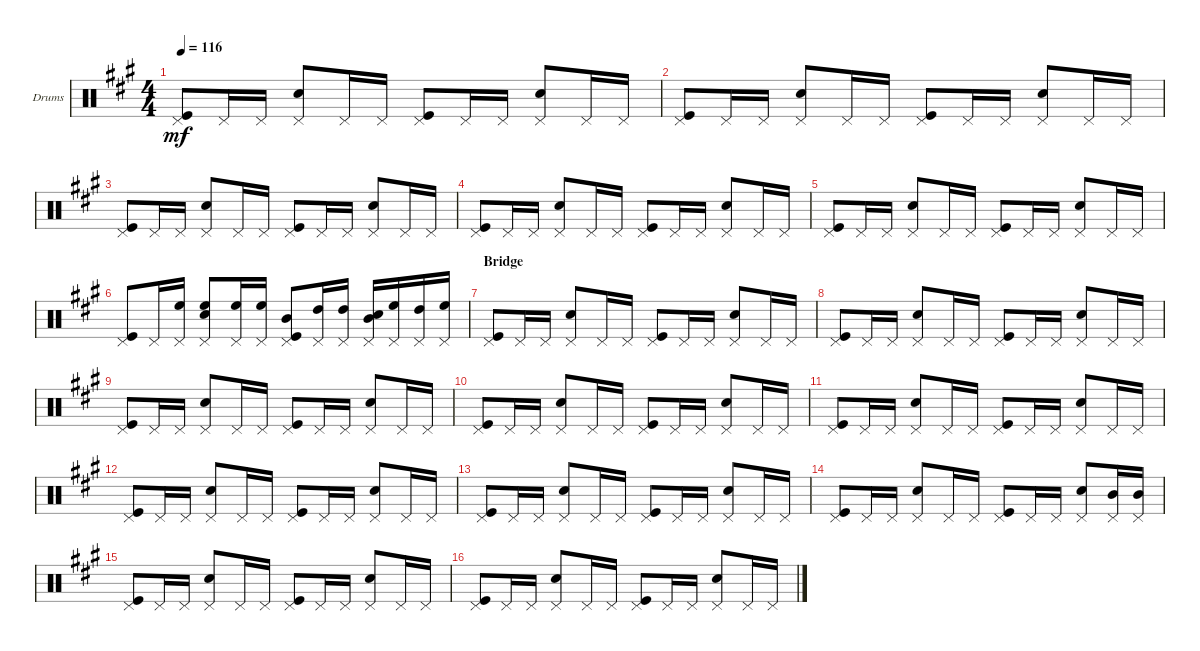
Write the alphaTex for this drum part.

\defaultSystemsLayout 4
\bracketExtendMode groupsimilarinstruments
\firstSystemTrackNameOrientation horizontal
\otherSystemsTrackNameOrientation horizontal
\track ("Drumkit" "Drums") {instrument percussion}
\staff {score}
\articulation defaults
\ts (4 4)
\tempo 116
\clef neutral
\ks a
("Pedal Hi-Hat (hit)" "Kick (hit)").8{dy mf} "Pedal Hi-Hat (hit)".16 "Pedal Hi-Hat (hit)".16 ("Pedal Hi-Hat (hit)" "Snare (hit) 2").8 "Pedal Hi-Hat (hit)".16 "Pedal Hi-Hat (hit)".16 ("Pedal Hi-Hat (hit)" "Kick (hit)").8 "Pedal Hi-Hat (hit)".16 "Pedal Hi-Hat (hit)".16 ("Pedal Hi-Hat (hit)" "Snare (hit) 2").8 "Pedal Hi-Hat (hit)".16 "Pedal Hi-Hat (hit)".16 |
("Pedal Hi-Hat (hit)" "Kick (hit)").8 "Pedal Hi-Hat (hit)".16 "Pedal Hi-Hat (hit)".16 ("Pedal Hi-Hat (hit)" "Snare (hit) 2").8 "Pedal Hi-Hat (hit)".16 "Pedal Hi-Hat (hit)".16 ("Pedal Hi-Hat (hit)" "Kick (hit)").8 "Pedal Hi-Hat (hit)".16 "Pedal Hi-Hat (hit)".16 ("Pedal Hi-Hat (hit)" "Snare (hit) 2").8 "Pedal Hi-Hat (hit)".16 "Pedal Hi-Hat (hit)".16 |
("Pedal Hi-Hat (hit)" "Kick (hit)").8 "Pedal Hi-Hat (hit)".16 "Pedal Hi-Hat (hit)".16 ("Pedal Hi-Hat (hit)" "Snare (hit) 2").8 "Pedal Hi-Hat (hit)".16 "Pedal Hi-Hat (hit)".16 ("Pedal Hi-Hat (hit)" "Kick (hit)").8 "Pedal Hi-Hat (hit)".16 "Pedal Hi-Hat (hit)".16 ("Pedal Hi-Hat (hit)" "Snare (hit) 2").8 "Pedal Hi-Hat (hit)".16 "Pedal Hi-Hat (hit)".16 |
("Pedal Hi-Hat (hit)" "Kick (hit)").8 "Pedal Hi-Hat (hit)".16 "Pedal Hi-Hat (hit)".16 ("Pedal Hi-Hat (hit)" "Snare (hit) 2").8 "Pedal Hi-Hat (hit)".16 "Pedal Hi-Hat (hit)".16 ("Pedal Hi-Hat (hit)" "Kick (hit)").8 "Pedal Hi-Hat (hit)".16 "Pedal Hi-Hat (hit)".16 ("Pedal Hi-Hat (hit)" "Snare (hit) 2").8 "Pedal Hi-Hat (hit)".16 "Pedal Hi-Hat (hit)".16 |
("Pedal Hi-Hat (hit)" "Kick (hit)").8 "Pedal Hi-Hat (hit)".16 "Pedal Hi-Hat (hit)".16 ("Pedal Hi-Hat (hit)" "Snare (hit) 2").8 "Pedal Hi-Hat (hit)".16 "Pedal Hi-Hat (hit)".16 ("Pedal Hi-Hat (hit)" "Kick (hit)").8 "Pedal Hi-Hat (hit)".16 "Pedal Hi-Hat (hit)".16 ("Pedal Hi-Hat (hit)" "Snare (hit) 2").8 "Pedal Hi-Hat (hit)".16 "Pedal Hi-Hat (hit)".16 |
("Pedal Hi-Hat (hit)" "Kick (hit)").8 "Pedal Hi-Hat (hit)".16 ("Pedal Hi-Hat (hit)" "High Floor Tom (hit)").16 ("Pedal Hi-Hat (hit)" "Snare (hit) 2" "High Floor Tom (hit)").8 ("Pedal Hi-Hat (hit)" "High Floor Tom (hit)").16 ("Pedal Hi-Hat (hit)" "High Floor Tom (hit)").16 ("Pedal Hi-Hat (hit)" "Kick (hit)" "Mid Tom (hit)").8 ("Pedal Hi-Hat (hit)" "High Tom (hit)").16 ("Pedal Hi-Hat (hit)" "High Tom (hit)").16 ("Pedal Hi-Hat (hit)" "Snare (hit) 2" "Mid Tom (hit)").16 ("Pedal Hi-Hat (hit)" "High Floor Tom (hit)").16 ("Pedal Hi-Hat (hit)" "High Tom (hit)").16 ("High Floor Tom (hit)" "Pedal Hi-Hat (hit)").16 |
\section ("" "Bridge")
("Pedal Hi-Hat (hit)" "Kick (hit)").8 "Pedal Hi-Hat (hit)".16 "Pedal Hi-Hat (hit)".16 ("Pedal Hi-Hat (hit)" "Snare (hit) 2").8 "Pedal Hi-Hat (hit)".16 "Pedal Hi-Hat (hit)".16 ("Pedal Hi-Hat (hit)" "Kick (hit)").8 "Pedal Hi-Hat (hit)".16 "Pedal Hi-Hat (hit)".16 ("Pedal Hi-Hat (hit)" "Snare (hit) 2").8 "Pedal Hi-Hat (hit)".16 "Pedal Hi-Hat (hit)".16 |
("Pedal Hi-Hat (hit)" "Kick (hit)").8 "Pedal Hi-Hat (hit)".16 "Pedal Hi-Hat (hit)".16 ("Pedal Hi-Hat (hit)" "Snare (hit) 2").8 "Pedal Hi-Hat (hit)".16 "Pedal Hi-Hat (hit)".16 ("Pedal Hi-Hat (hit)" "Kick (hit)").8 "Pedal Hi-Hat (hit)".16 "Pedal Hi-Hat (hit)".16 ("Pedal Hi-Hat (hit)" "Snare (hit) 2").8 "Pedal Hi-Hat (hit)".16 "Pedal Hi-Hat (hit)".16 |
("Pedal Hi-Hat (hit)" "Kick (hit)").8 "Pedal Hi-Hat (hit)".16 "Pedal Hi-Hat (hit)".16 ("Pedal Hi-Hat (hit)" "Snare (hit) 2").8 "Pedal Hi-Hat (hit)".16 "Pedal Hi-Hat (hit)".16 ("Pedal Hi-Hat (hit)" "Kick (hit)").8 "Pedal Hi-Hat (hit)".16 "Pedal Hi-Hat (hit)".16 ("Pedal Hi-Hat (hit)" "Snare (hit) 2").8 "Pedal Hi-Hat (hit)".16 "Pedal Hi-Hat (hit)".16 |
("Pedal Hi-Hat (hit)" "Kick (hit)").8 "Pedal Hi-Hat (hit)".16 "Pedal Hi-Hat (hit)".16 ("Pedal Hi-Hat (hit)" "Snare (hit) 2").8 "Pedal Hi-Hat (hit)".16 "Pedal Hi-Hat (hit)".16 ("Pedal Hi-Hat (hit)" "Kick (hit)").8 "Pedal Hi-Hat (hit)".16 "Pedal Hi-Hat (hit)".16 ("Pedal Hi-Hat (hit)" "Snare (hit) 2").8 "Pedal Hi-Hat (hit)".16 "Pedal Hi-Hat (hit)".16 |
("Pedal Hi-Hat (hit)" "Kick (hit)").8 "Pedal Hi-Hat (hit)".16 "Pedal Hi-Hat (hit)".16 ("Pedal Hi-Hat (hit)" "Snare (hit) 2").8 "Pedal Hi-Hat (hit)".16 "Pedal Hi-Hat (hit)".16 ("Pedal Hi-Hat (hit)" "Kick (hit)").8 "Pedal Hi-Hat (hit)".16 "Pedal Hi-Hat (hit)".16 ("Pedal Hi-Hat (hit)" "Snare (hit) 2").8 "Pedal Hi-Hat (hit)".16 "Pedal Hi-Hat (hit)".16 |
("Pedal Hi-Hat (hit)" "Kick (hit)").8 "Pedal Hi-Hat (hit)".16 "Pedal Hi-Hat (hit)".16 ("Pedal Hi-Hat (hit)" "Snare (hit) 2").8 "Pedal Hi-Hat (hit)".16 "Pedal Hi-Hat (hit)".16 ("Pedal Hi-Hat (hit)" "Kick (hit)").8 "Pedal Hi-Hat (hit)".16 "Pedal Hi-Hat (hit)".16 ("Pedal Hi-Hat (hit)" "Snare (hit) 2").8 "Pedal Hi-Hat (hit)".16 "Pedal Hi-Hat (hit)".16 |
("Pedal Hi-Hat (hit)" "Kick (hit)").8 "Pedal Hi-Hat (hit)".16 "Pedal Hi-Hat (hit)".16 ("Pedal Hi-Hat (hit)" "Snare (hit) 2").8 "Pedal Hi-Hat (hit)".16 "Pedal Hi-Hat (hit)".16 ("Pedal Hi-Hat (hit)" "Kick (hit)").8 "Pedal Hi-Hat (hit)".16 "Pedal Hi-Hat (hit)".16 ("Pedal Hi-Hat (hit)" "Snare (hit) 2").8 "Pedal Hi-Hat (hit)".16 "Pedal Hi-Hat (hit)".16 |
("Pedal Hi-Hat (hit)" "Kick (hit)").8 "Pedal Hi-Hat (hit)".16 "Pedal Hi-Hat (hit)".16 ("Pedal Hi-Hat (hit)" "Snare (hit) 2").8 "Pedal Hi-Hat (hit)".16 "Pedal Hi-Hat (hit)".16 ("Pedal Hi-Hat (hit)" "Kick (hit)").8 "Pedal Hi-Hat (hit)".16 "Pedal Hi-Hat (hit)".16 ("Pedal Hi-Hat (hit)" "Snare (hit) 2").8 ("Pedal Hi-Hat (hit)" "Mid Tom (hit)").16 ("Pedal Hi-Hat (hit)" "Mid Tom (hit)").16 |
("Pedal Hi-Hat (hit)" "Kick (hit)").8 "Pedal Hi-Hat (hit)".16 "Pedal Hi-Hat (hit)".16 ("Pedal Hi-Hat (hit)" "Snare (hit) 2").8 "Pedal Hi-Hat (hit)".16 "Pedal Hi-Hat (hit)".16 ("Pedal Hi-Hat (hit)" "Kick (hit)").8 "Pedal Hi-Hat (hit)".16 "Pedal Hi-Hat (hit)".16 ("Pedal Hi-Hat (hit)" "Snare (hit) 2").8 "Pedal Hi-Hat (hit)".16 "Pedal Hi-Hat (hit)".16 |
("Pedal Hi-Hat (hit)" "Kick (hit)").8 "Pedal Hi-Hat (hit)".16 "Pedal Hi-Hat (hit)".16 ("Pedal Hi-Hat (hit)" "Snare (hit) 2").8 "Pedal Hi-Hat (hit)".16 "Pedal Hi-Hat (hit)".16 ("Pedal Hi-Hat (hit)" "Kick (hit)").8 "Pedal Hi-Hat (hit)".16 "Pedal Hi-Hat (hit)".16 ("Pedal Hi-Hat (hit)" "Snare (hit) 2").8 "Pedal Hi-Hat (hit)".16 "Pedal Hi-Hat (hit)".16
